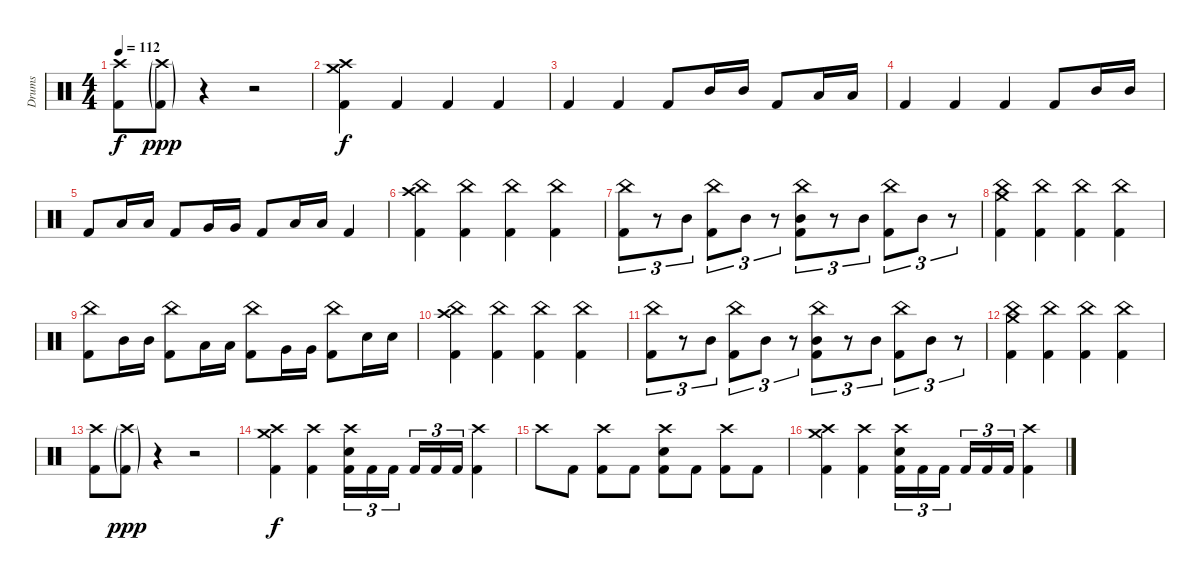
\track ("Drums" "Drums") {instrument percussion}
\staff {score}
\articulation defaults
\ts (4 4)
\tempo 112
\clef neutral
\ks c
("Crash high (hit)" "Kick (hit) 2").8{dy f} ("Crash high (hit)"{g} "Kick (hit) 2"{g}).8{dy ppp} r.4 r.2 |
("Crash high (hit)" "Crash medium (hit)" "Kick (hit) 2").4{dy f} "Kick (hit) 2".4 "Kick (hit) 2".4 "Kick (hit) 2".4 |
"Kick (hit) 2".4 "Kick (hit) 2".4 "Kick (hit) 2".8 "Mid Tom (hit)".16 "Mid Tom (hit)".16 "Kick (hit) 2".8 "Low Tom (hit)".16 "Low Tom (hit)".16 |
"Kick (hit) 2".4 "Kick (hit) 2".4 "Kick (hit) 2".4 "Kick (hit) 2".8 "Mid Tom (hit)".16 "Mid Tom (hit)".16 |
"Kick (hit) 2".8 "Low Tom (hit)".16 "Low Tom (hit)".16 "Kick (hit) 2".8 "Very Low Tom (hit)".16 "Very Low Tom (hit)".16 "Kick (hit) 2".8 "Low Floor Tom (hit)".16 "Low Floor Tom (hit)".16 "Kick (hit) 2".4 |
("China (hit)" "Crash high (hit)" "Kick (hit) 2").4 ("China (hit)" "Kick (hit) 2").4 ("China (hit)" "Kick (hit) 2").4 ("China (hit)" "Kick (hit) 2").4 |
("China (hit)" "Kick (hit) 2").8{tu (3 2)} r.8{tu (3 2)} "Mid Tom (hit)".8{tu (3 2)} ("China (hit)" "Kick (hit) 2").8{tu (3 2)} "Mid Tom (hit)".8{tu (3 2)} r.8{tu (3 2)} ("China (hit)" "Mid Tom (hit)" "Kick (hit) 2").8{tu (3 2)} r.8{tu (3 2)} "Mid Tom (hit)".8{tu (3 2)} ("China (hit)" "Kick (hit) 2").8{tu (3 2)} "Mid Tom (hit)".8{tu (3 2)} r.8{tu (3 2)} |
("China (hit)" "Crash medium (hit)" "Kick (hit) 2").4 ("China (hit)" "Kick (hit) 2").4 ("China (hit)" "Kick (hit) 2").4 ("China (hit)" "Kick (hit) 2").4 |
("China (hit)" "Kick (hit) 2").8 "Mid Tom (hit)".16 "Mid Tom (hit)".16 ("China (hit)" "Kick (hit) 2").8 "Low Tom (hit)".16 "Low Tom (hit)".16 ("China (hit)" "Kick (hit) 2").8 "Very Low Tom (hit)".16 "Very Low Tom (hit)".16 ("China (hit)" "Kick (hit) 2").8 "Electric Snare (hit)".16 "Electric Snare (hit)".16 |
("China (hit)" "Crash high (hit)" "Kick (hit) 2").4 ("China (hit)" "Kick (hit) 2").4 ("China (hit)" "Kick (hit) 2").4 ("China (hit)" "Kick (hit) 2").4 |
("China (hit)" "Kick (hit) 2").8{tu (3 2)} r.8{tu (3 2)} "Mid Tom (hit)".8{tu (3 2)} ("China (hit)" "Kick (hit) 2").8{tu (3 2)} "Mid Tom (hit)".8{tu (3 2)} r.8{tu (3 2)} ("China (hit)" "Mid Tom (hit)" "Kick (hit) 2").8{tu (3 2)} r.8{tu (3 2)} "Mid Tom (hit)".8{tu (3 2)} ("China (hit)" "Kick (hit) 2").8{tu (3 2)} "Mid Tom (hit)".8{tu (3 2)} r.8{tu (3 2)} |
("China (hit)" "Crash medium (hit)" "Kick (hit) 2").4 ("China (hit)" "Kick (hit) 2").4 ("China (hit)" "Kick (hit) 2").4 ("China (hit)" "Kick (hit) 2").4 |
("Crash high (hit)" "Kick (hit) 2").8 ("Crash high (hit)"{g} "Kick (hit) 2"{g}).8{dy ppp} r.4 r.2 |
("Crash high (hit)" "Crash medium (hit)" "Kick (hit) 2").4{dy f} ("Crash high (hit)" "Kick (hit) 2").4 ("Crash high (hit)" "Electric Snare (hit)" "Kick (hit) 2").16{tu (3 2)} "Kick (hit) 2".16{tu (3 2)} "Kick (hit) 2".16{tu (3 2) beam splitsecondary} "Kick (hit) 2".16{tu (3 2)} "Kick (hit) 2".16{tu (3 2)} "Kick (hit) 2".16{tu (3 2)} ("Crash high (hit)" "Kick (hit) 2").4 |
"Crash high (hit)".8 "Kick (hit) 2".8 ("Crash high (hit)" "Kick (hit) 2").8 "Kick (hit) 2".8 ("Crash high (hit)" "Electric Snare (hit)" "Kick (hit) 2").8 "Kick (hit) 2".8 ("Crash high (hit)" "Kick (hit) 2").8 "Kick (hit) 2".8 |
("Crash high (hit)" "Crash medium (hit)" "Kick (hit) 2").4 ("Crash high (hit)" "Kick (hit) 2").4 ("Crash high (hit)" "Electric Snare (hit)" "Kick (hit) 2").16{tu (3 2)} "Kick (hit) 2".16{tu (3 2)} "Kick (hit) 2".16{tu (3 2) beam splitsecondary} "Kick (hit) 2".16{tu (3 2)} "Kick (hit) 2".16{tu (3 2)} "Kick (hit) 2".16{tu (3 2)} ("Crash high (hit)" "Kick (hit) 2").4
